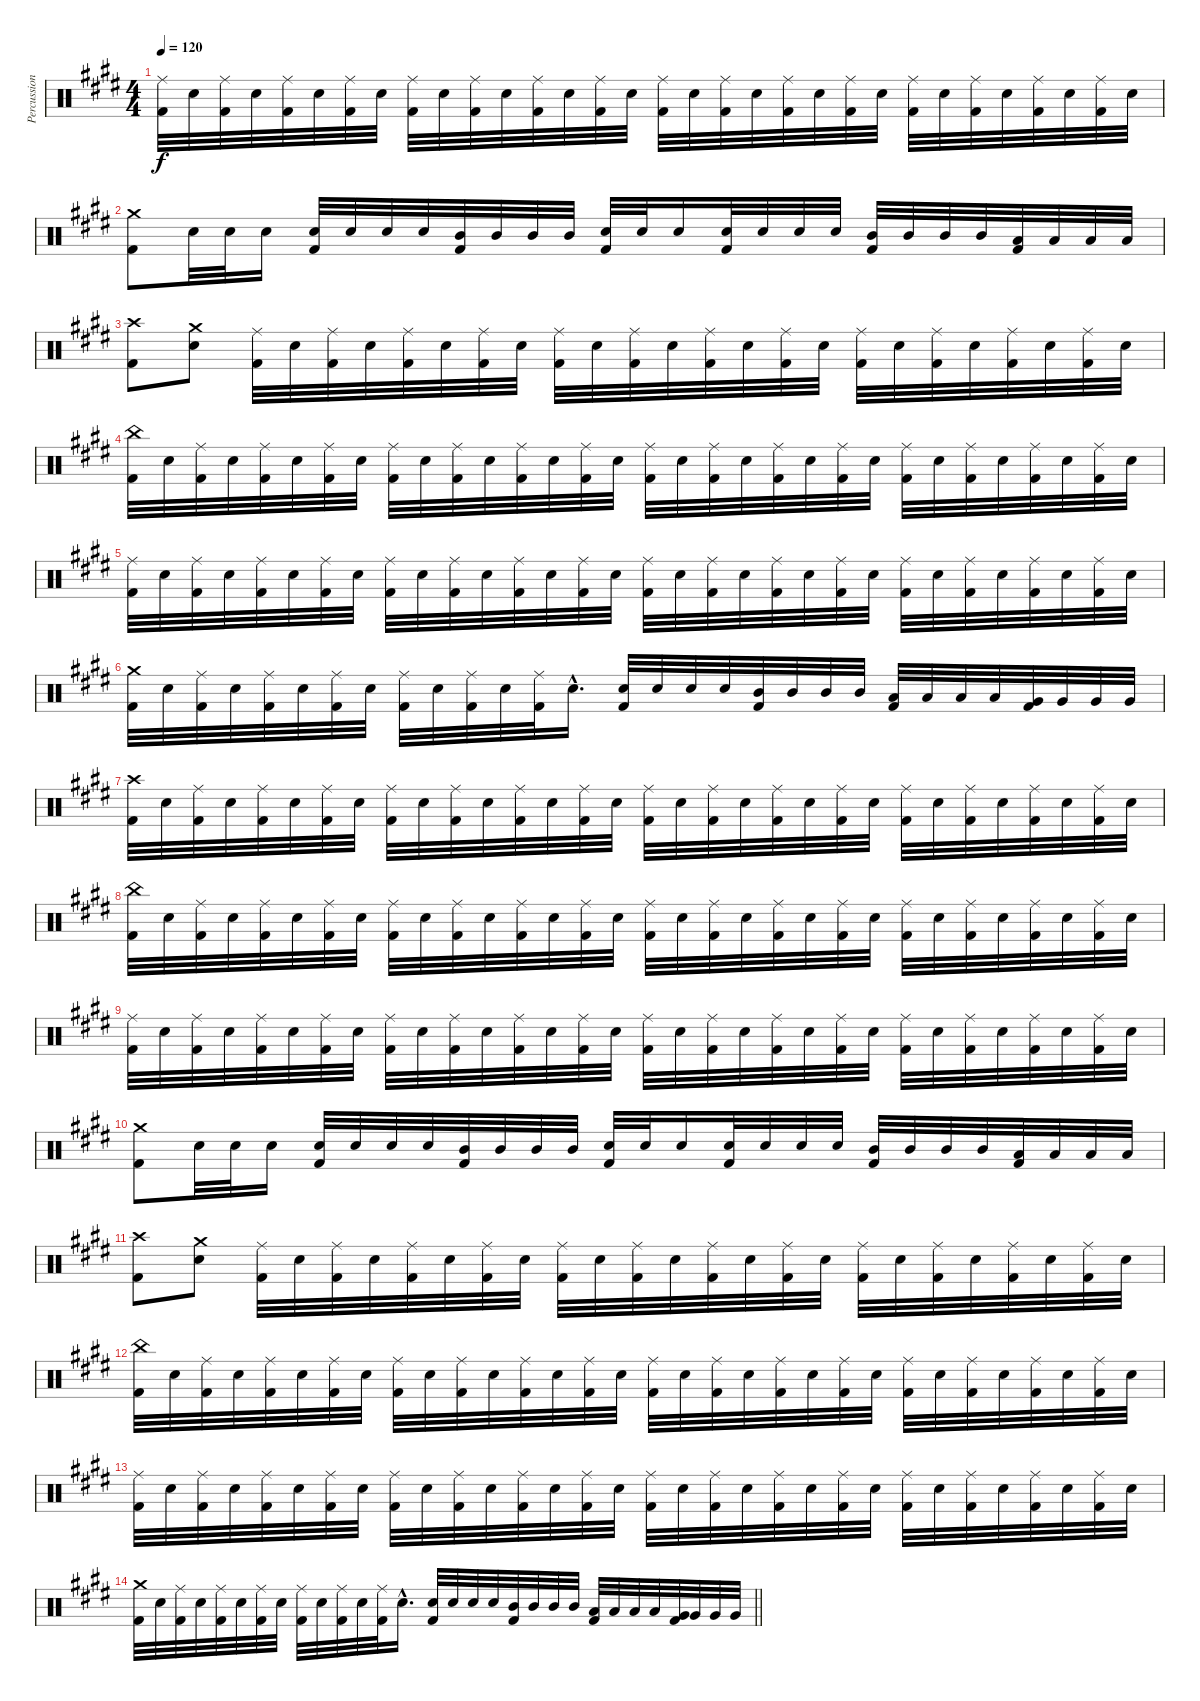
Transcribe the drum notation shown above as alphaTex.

\track ("Percussion" "Percussion") {instrument percussion}
\staff {score}
\articulation defaults
\ts (4 4)
\tempo 120
\clef neutral
\ks c#minor
("Ride (middle)" "Kick (hit) 2").32{dy f} "Snare (hit) 2".32 ("Ride (middle)" "Kick (hit) 2").32 "Snare (hit) 2".32 ("Ride (middle)" "Kick (hit) 2").32 "Snare (hit) 2".32 ("Ride (middle)" "Kick (hit) 2").32 "Snare (hit) 2".32 ("Ride (middle)" "Kick (hit) 2").32 "Snare (hit) 2".32 ("Ride (middle)" "Kick (hit) 2").32 "Snare (hit) 2".32 ("Ride (middle)" "Kick (hit) 2").32 "Snare (hit) 2".32 ("Ride (middle)" "Kick (hit) 2").32 "Snare (hit) 2".32 ("Ride (middle)" "Kick (hit) 2").32 "Snare (hit) 2".32 ("Ride (middle)" "Kick (hit) 2").32 "Snare (hit) 2".32 ("Ride (middle)" "Kick (hit) 2").32 "Snare (hit) 2".32 ("Ride (middle)" "Kick (hit) 2").32 "Snare (hit) 2".32 ("Ride (middle)" "Kick (hit) 2").32 "Snare (hit) 2".32 ("Ride (middle)" "Kick (hit) 2").32 "Snare (hit) 2".32 ("Ride (middle)" "Kick (hit) 2").32 "Snare (hit) 2".32 ("Ride (middle)" "Kick (hit) 2").32 "Snare (hit) 2".32 |
("Crash medium (hit)" "Kick (hit) 2").8 "Snare (hit) 2".32 "Snare (hit) 2".32 "Snare (hit) 2".16 ("Snare (hit) 2" "Kick (hit) 2").32 "Snare (hit) 2".32 "Snare (hit) 2".32 "Snare (hit) 2".32 ("Mid Tom (hit)" "Kick (hit) 2").32 "Mid Tom (hit)".32 "Mid Tom (hit)".32 "Mid Tom (hit)".32 ("Snare (hit) 2" "Kick (hit) 2").32 "Snare (hit) 2".32 "Snare (hit) 2".16 ("Snare (hit) 2" "Kick (hit) 2").32 "Snare (hit) 2".32 "Snare (hit) 2".32 "Snare (hit) 2".32 ("Mid Tom (hit)" "Kick (hit) 2").32 "Mid Tom (hit)".32 "Mid Tom (hit)".32 "Mid Tom (hit)".32 ("Low Tom (hit)" "Kick (hit) 2").32 "Low Tom (hit)".32 "Low Tom (hit)".32 "Low Tom (hit)".32 |
("Crash high (hit)" "Kick (hit) 2").8 ("Crash medium (hit)" "Snare (hit) 2").8 ("Ride (middle)" "Kick (hit) 2").32 "Snare (hit) 2".32 ("Ride (middle)" "Kick (hit) 2").32 "Snare (hit) 2".32 ("Ride (middle)" "Kick (hit) 2").32 "Snare (hit) 2".32 ("Ride (middle)" "Kick (hit) 2").32 "Snare (hit) 2".32 ("Ride (middle)" "Kick (hit) 2").32 "Snare (hit) 2".32 ("Ride (middle)" "Kick (hit) 2").32 "Snare (hit) 2".32 ("Ride (middle)" "Kick (hit) 2").32 "Snare (hit) 2".32 ("Ride (middle)" "Kick (hit) 2").32 "Snare (hit) 2".32 ("Ride (middle)" "Kick (hit) 2").32 "Snare (hit) 2".32 ("Ride (middle)" "Kick (hit) 2").32 "Snare (hit) 2".32 ("Ride (middle)" "Kick (hit) 2").32 "Snare (hit) 2".32 ("Ride (middle)" "Kick (hit) 2").32 "Snare (hit) 2".32 |
("China (hit)" "Kick (hit) 2").32 "Snare (hit) 2".32 ("Ride (middle)" "Kick (hit) 2").32 "Snare (hit) 2".32 ("Ride (middle)" "Kick (hit) 2").32 "Snare (hit) 2".32 ("Ride (middle)" "Kick (hit) 2").32 "Snare (hit) 2".32 ("Ride (middle)" "Kick (hit) 2").32 "Snare (hit) 2".32 ("Ride (middle)" "Kick (hit) 2").32 "Snare (hit) 2".32 ("Ride (middle)" "Kick (hit) 2").32 "Snare (hit) 2".32 ("Ride (middle)" "Kick (hit) 2").32 "Snare (hit) 2".32 ("Ride (middle)" "Kick (hit) 2").32 "Snare (hit) 2".32 ("Ride (middle)" "Kick (hit) 2").32 "Snare (hit) 2".32 ("Ride (middle)" "Kick (hit) 2").32 "Snare (hit) 2".32 ("Ride (middle)" "Kick (hit) 2").32 "Snare (hit) 2".32 ("Ride (middle)" "Kick (hit) 2").32 "Snare (hit) 2".32 ("Ride (middle)" "Kick (hit) 2").32 "Snare (hit) 2".32 ("Ride (middle)" "Kick (hit) 2").32 "Snare (hit) 2".32 ("Ride (middle)" "Kick (hit) 2").32 "Snare (hit) 2".32 |
("Ride (middle)" "Kick (hit) 2").32 "Snare (hit) 2".32 ("Ride (middle)" "Kick (hit) 2").32 "Snare (hit) 2".32 ("Ride (middle)" "Kick (hit) 2").32 "Snare (hit) 2".32 ("Ride (middle)" "Kick (hit) 2").32 "Snare (hit) 2".32 ("Ride (middle)" "Kick (hit) 2").32 "Snare (hit) 2".32 ("Ride (middle)" "Kick (hit) 2").32 "Snare (hit) 2".32 ("Ride (middle)" "Kick (hit) 2").32 "Snare (hit) 2".32 ("Ride (middle)" "Kick (hit) 2").32 "Snare (hit) 2".32 ("Ride (middle)" "Kick (hit) 2").32 "Snare (hit) 2".32 ("Ride (middle)" "Kick (hit) 2").32 "Snare (hit) 2".32 ("Ride (middle)" "Kick (hit) 2").32 "Snare (hit) 2".32 ("Ride (middle)" "Kick (hit) 2").32 "Snare (hit) 2".32 ("Ride (middle)" "Kick (hit) 2").32 "Snare (hit) 2".32 ("Ride (middle)" "Kick (hit) 2").32 "Snare (hit) 2".32 ("Ride (middle)" "Kick (hit) 2").32 "Snare (hit) 2".32 ("Ride (middle)" "Kick (hit) 2").32 "Snare (hit) 2".32 |
("Crash medium (hit)" "Kick (hit) 2").32 "Snare (hit) 2".32 ("Ride (middle)" "Kick (hit) 2").32 "Snare (hit) 2".32 ("Ride (middle)" "Kick (hit) 2").32 "Snare (hit) 2".32 ("Ride (middle)" "Kick (hit) 2").32 "Snare (hit) 2".32 ("Ride (middle)" "Kick (hit) 2").32 "Snare (hit) 2".32 ("Ride (middle)" "Kick (hit) 2").32 "Snare (hit) 2".32 ("Ride (middle)" "Kick (hit) 2").32 "Snare (hit) 2"{hac}.16{d} ("Snare (hit) 2" "Kick (hit) 2").32 "Snare (hit) 2".32 "Snare (hit) 2".32 "Snare (hit) 2".32 ("Mid Tom (hit)" "Kick (hit) 2").32 "Mid Tom (hit)".32 "Mid Tom (hit)".32 "Mid Tom (hit)".32 ("Low Tom (hit)" "Kick (hit) 2").32 "Low Tom (hit)".32 "Low Tom (hit)".32 "Low Tom (hit)".32 ("Very Low Tom (hit)" "Kick (hit) 2").32 "Very Low Tom (hit)".32 "Very Low Tom (hit)".32 "Very Low Tom (hit)".32 |
("Crash high (hit)" "Kick (hit) 2").32 "Snare (hit) 2".32 ("Ride (middle)" "Kick (hit) 2").32 "Snare (hit) 2".32 ("Ride (middle)" "Kick (hit) 2").32 "Snare (hit) 2".32 ("Ride (middle)" "Kick (hit) 2").32 "Snare (hit) 2".32 ("Ride (middle)" "Kick (hit) 2").32 "Snare (hit) 2".32 ("Ride (middle)" "Kick (hit) 2").32 "Snare (hit) 2".32 ("Ride (middle)" "Kick (hit) 2").32 "Snare (hit) 2".32 ("Ride (middle)" "Kick (hit) 2").32 "Snare (hit) 2".32 ("Ride (middle)" "Kick (hit) 2").32 "Snare (hit) 2".32 ("Ride (middle)" "Kick (hit) 2").32 "Snare (hit) 2".32 ("Ride (middle)" "Kick (hit) 2").32 "Snare (hit) 2".32 ("Ride (middle)" "Kick (hit) 2").32 "Snare (hit) 2".32 ("Ride (middle)" "Kick (hit) 2").32 "Snare (hit) 2".32 ("Ride (middle)" "Kick (hit) 2").32 "Snare (hit) 2".32 ("Ride (middle)" "Kick (hit) 2").32 "Snare (hit) 2".32 ("Ride (middle)" "Kick (hit) 2").32 "Snare (hit) 2".32 |
("China (hit)" "Kick (hit) 2").32 "Snare (hit) 2".32 ("Ride (middle)" "Kick (hit) 2").32 "Snare (hit) 2".32 ("Ride (middle)" "Kick (hit) 2").32 "Snare (hit) 2".32 ("Ride (middle)" "Kick (hit) 2").32 "Snare (hit) 2".32 ("Ride (middle)" "Kick (hit) 2").32 "Snare (hit) 2".32 ("Ride (middle)" "Kick (hit) 2").32 "Snare (hit) 2".32 ("Ride (middle)" "Kick (hit) 2").32 "Snare (hit) 2".32 ("Ride (middle)" "Kick (hit) 2").32 "Snare (hit) 2".32 ("Ride (middle)" "Kick (hit) 2").32 "Snare (hit) 2".32 ("Ride (middle)" "Kick (hit) 2").32 "Snare (hit) 2".32 ("Ride (middle)" "Kick (hit) 2").32 "Snare (hit) 2".32 ("Ride (middle)" "Kick (hit) 2").32 "Snare (hit) 2".32 ("Ride (middle)" "Kick (hit) 2").32 "Snare (hit) 2".32 ("Ride (middle)" "Kick (hit) 2").32 "Snare (hit) 2".32 ("Ride (middle)" "Kick (hit) 2").32 "Snare (hit) 2".32 ("Ride (middle)" "Kick (hit) 2").32 "Snare (hit) 2".32 |
("Ride (middle)" "Kick (hit) 2").32 "Snare (hit) 2".32 ("Ride (middle)" "Kick (hit) 2").32 "Snare (hit) 2".32 ("Ride (middle)" "Kick (hit) 2").32 "Snare (hit) 2".32 ("Ride (middle)" "Kick (hit) 2").32 "Snare (hit) 2".32 ("Ride (middle)" "Kick (hit) 2").32 "Snare (hit) 2".32 ("Ride (middle)" "Kick (hit) 2").32 "Snare (hit) 2".32 ("Ride (middle)" "Kick (hit) 2").32 "Snare (hit) 2".32 ("Ride (middle)" "Kick (hit) 2").32 "Snare (hit) 2".32 ("Ride (middle)" "Kick (hit) 2").32 "Snare (hit) 2".32 ("Ride (middle)" "Kick (hit) 2").32 "Snare (hit) 2".32 ("Ride (middle)" "Kick (hit) 2").32 "Snare (hit) 2".32 ("Ride (middle)" "Kick (hit) 2").32 "Snare (hit) 2".32 ("Ride (middle)" "Kick (hit) 2").32 "Snare (hit) 2".32 ("Ride (middle)" "Kick (hit) 2").32 "Snare (hit) 2".32 ("Ride (middle)" "Kick (hit) 2").32 "Snare (hit) 2".32 ("Ride (middle)" "Kick (hit) 2").32 "Snare (hit) 2".32 |
("Crash medium (hit)" "Kick (hit) 2").8 "Snare (hit) 2".32 "Snare (hit) 2".32 "Snare (hit) 2".16 ("Snare (hit) 2" "Kick (hit) 2").32 "Snare (hit) 2".32 "Snare (hit) 2".32 "Snare (hit) 2".32 ("Mid Tom (hit)" "Kick (hit) 2").32 "Mid Tom (hit)".32 "Mid Tom (hit)".32 "Mid Tom (hit)".32 ("Snare (hit) 2" "Kick (hit) 2").32 "Snare (hit) 2".32 "Snare (hit) 2".16 ("Snare (hit) 2" "Kick (hit) 2").32 "Snare (hit) 2".32 "Snare (hit) 2".32 "Snare (hit) 2".32 ("Mid Tom (hit)" "Kick (hit) 2").32 "Mid Tom (hit)".32 "Mid Tom (hit)".32 "Mid Tom (hit)".32 ("Low Tom (hit)" "Kick (hit) 2").32 "Low Tom (hit)".32 "Low Tom (hit)".32 "Low Tom (hit)".32 |
("Crash high (hit)" "Kick (hit) 2").8 ("Crash medium (hit)" "Snare (hit) 2").8 ("Ride (middle)" "Kick (hit) 2").32 "Snare (hit) 2".32 ("Ride (middle)" "Kick (hit) 2").32 "Snare (hit) 2".32 ("Ride (middle)" "Kick (hit) 2").32 "Snare (hit) 2".32 ("Ride (middle)" "Kick (hit) 2").32 "Snare (hit) 2".32 ("Ride (middle)" "Kick (hit) 2").32 "Snare (hit) 2".32 ("Ride (middle)" "Kick (hit) 2").32 "Snare (hit) 2".32 ("Ride (middle)" "Kick (hit) 2").32 "Snare (hit) 2".32 ("Ride (middle)" "Kick (hit) 2").32 "Snare (hit) 2".32 ("Ride (middle)" "Kick (hit) 2").32 "Snare (hit) 2".32 ("Ride (middle)" "Kick (hit) 2").32 "Snare (hit) 2".32 ("Ride (middle)" "Kick (hit) 2").32 "Snare (hit) 2".32 ("Ride (middle)" "Kick (hit) 2").32 "Snare (hit) 2".32 |
("China (hit)" "Kick (hit) 2").32 "Snare (hit) 2".32 ("Ride (middle)" "Kick (hit) 2").32 "Snare (hit) 2".32 ("Ride (middle)" "Kick (hit) 2").32 "Snare (hit) 2".32 ("Ride (middle)" "Kick (hit) 2").32 "Snare (hit) 2".32 ("Ride (middle)" "Kick (hit) 2").32 "Snare (hit) 2".32 ("Ride (middle)" "Kick (hit) 2").32 "Snare (hit) 2".32 ("Ride (middle)" "Kick (hit) 2").32 "Snare (hit) 2".32 ("Ride (middle)" "Kick (hit) 2").32 "Snare (hit) 2".32 ("Ride (middle)" "Kick (hit) 2").32 "Snare (hit) 2".32 ("Ride (middle)" "Kick (hit) 2").32 "Snare (hit) 2".32 ("Ride (middle)" "Kick (hit) 2").32 "Snare (hit) 2".32 ("Ride (middle)" "Kick (hit) 2").32 "Snare (hit) 2".32 ("Ride (middle)" "Kick (hit) 2").32 "Snare (hit) 2".32 ("Ride (middle)" "Kick (hit) 2").32 "Snare (hit) 2".32 ("Ride (middle)" "Kick (hit) 2").32 "Snare (hit) 2".32 ("Ride (middle)" "Kick (hit) 2").32 "Snare (hit) 2".32 |
("Ride (middle)" "Kick (hit) 2").32 "Snare (hit) 2".32 ("Ride (middle)" "Kick (hit) 2").32 "Snare (hit) 2".32 ("Ride (middle)" "Kick (hit) 2").32 "Snare (hit) 2".32 ("Ride (middle)" "Kick (hit) 2").32 "Snare (hit) 2".32 ("Ride (middle)" "Kick (hit) 2").32 "Snare (hit) 2".32 ("Ride (middle)" "Kick (hit) 2").32 "Snare (hit) 2".32 ("Ride (middle)" "Kick (hit) 2").32 "Snare (hit) 2".32 ("Ride (middle)" "Kick (hit) 2").32 "Snare (hit) 2".32 ("Ride (middle)" "Kick (hit) 2").32 "Snare (hit) 2".32 ("Ride (middle)" "Kick (hit) 2").32 "Snare (hit) 2".32 ("Ride (middle)" "Kick (hit) 2").32 "Snare (hit) 2".32 ("Ride (middle)" "Kick (hit) 2").32 "Snare (hit) 2".32 ("Ride (middle)" "Kick (hit) 2").32 "Snare (hit) 2".32 ("Ride (middle)" "Kick (hit) 2").32 "Snare (hit) 2".32 ("Ride (middle)" "Kick (hit) 2").32 "Snare (hit) 2".32 ("Ride (middle)" "Kick (hit) 2").32 "Snare (hit) 2".32 |
\barLineRight lightlight
("Crash medium (hit)" "Kick (hit) 2").32 "Snare (hit) 2".32 ("Ride (middle)" "Kick (hit) 2").32 "Snare (hit) 2".32 ("Ride (middle)" "Kick (hit) 2").32 "Snare (hit) 2".32 ("Ride (middle)" "Kick (hit) 2").32 "Snare (hit) 2".32 ("Ride (middle)" "Kick (hit) 2").32 "Snare (hit) 2".32 ("Ride (middle)" "Kick (hit) 2").32 "Snare (hit) 2".32 ("Ride (middle)" "Kick (hit) 2").32 "Snare (hit) 2"{hac}.16{d} ("Snare (hit) 2" "Kick (hit) 2").32 "Snare (hit) 2".32 "Snare (hit) 2".32 "Snare (hit) 2".32 ("Mid Tom (hit)" "Kick (hit) 2").32 "Mid Tom (hit)".32 "Mid Tom (hit)".32 "Mid Tom (hit)".32 ("Low Tom (hit)" "Kick (hit) 2").32 "Low Tom (hit)".32 "Low Tom (hit)".32 "Low Tom (hit)".32 ("Very Low Tom (hit)" "Kick (hit) 2").32 "Very Low Tom (hit)".32 "Very Low Tom (hit)".32 "Very Low Tom (hit)".32
